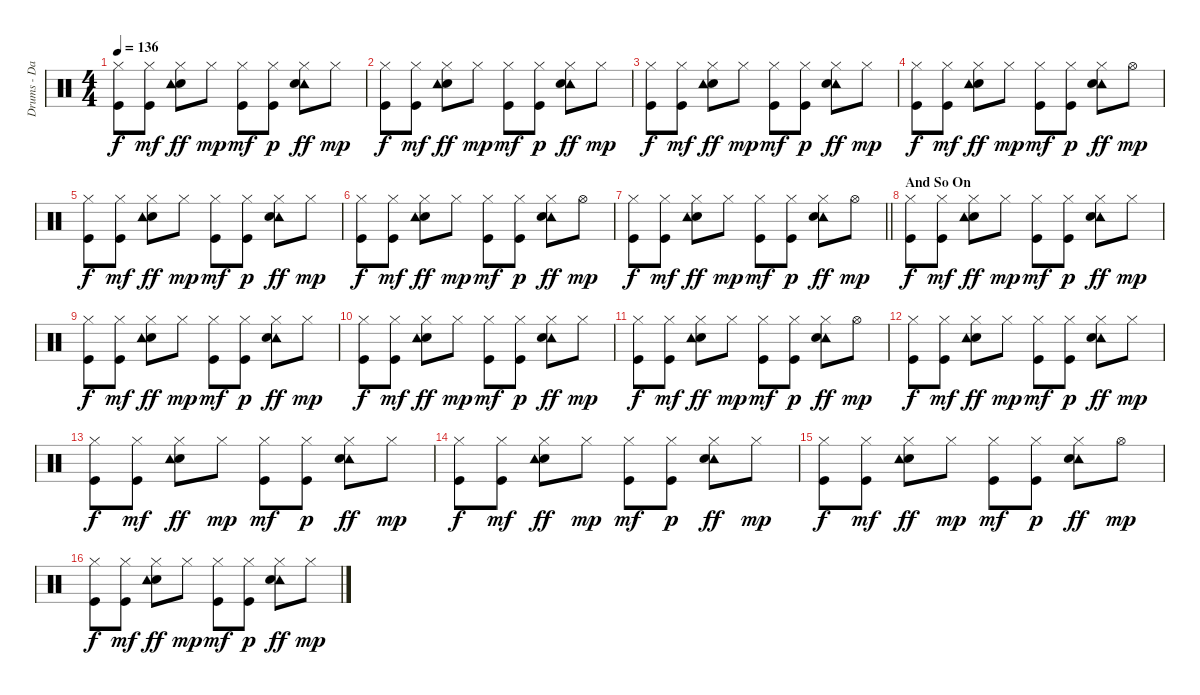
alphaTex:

\track ("Drums - Danny Smythe" "Drums - Da") {instrument percussion}
\staff {score}
\articulation defaults
\ts (4 4)
\tempo 136
\clef neutral
\ks c
("Hi-Hat (closed)" "Kick (hit)").8{dy f} ("Hi-Hat (closed)" "Kick (hit)").8{dy mf} ("Hi-Hat (closed)" "Electric Snare (hit)" "Tambourine (hit)").8{dy ff} "Hi-Hat (closed)".8{dy mp} ("Hi-Hat (closed)" "Kick (hit)").8{dy mf} ("Hi-Hat (closed)" "Kick (hit)").8{dy p} ("Tambourine (hit)" "Hi-Hat (closed)" "Electric Snare (hit)").8{dy ff} "Hi-Hat (closed)".8{dy mp} |
("Hi-Hat (closed)" "Kick (hit)").8{dy f} ("Hi-Hat (closed)" "Kick (hit)").8{dy mf} ("Hi-Hat (closed)" "Electric Snare (hit)" "Tambourine (hit)").8{dy ff} "Hi-Hat (closed)".8{dy mp} ("Hi-Hat (closed)" "Kick (hit)").8{dy mf} ("Hi-Hat (closed)" "Kick (hit)").8{dy p} ("Tambourine (hit)" "Hi-Hat (closed)" "Electric Snare (hit)").8{dy ff} "Hi-Hat (closed)".8{dy mp} |
("Hi-Hat (closed)" "Kick (hit)").8{dy f} ("Hi-Hat (closed)" "Kick (hit)").8{dy mf} ("Hi-Hat (closed)" "Electric Snare (hit)" "Tambourine (hit)").8{dy ff} "Hi-Hat (closed)".8{dy mp} ("Hi-Hat (closed)" "Kick (hit)").8{dy mf} ("Hi-Hat (closed)" "Kick (hit)").8{dy p} ("Tambourine (hit)" "Hi-Hat (closed)" "Electric Snare (hit)").8{dy ff} "Hi-Hat (closed)".8{dy mp} |
("Hi-Hat (closed)" "Kick (hit)").8{dy f} ("Hi-Hat (closed)" "Kick (hit)").8{dy mf} ("Hi-Hat (closed)" "Electric Snare (hit)" "Tambourine (hit)").8{dy ff} "Hi-Hat (closed)".8{dy mp} ("Hi-Hat (closed)" "Kick (hit)").8{dy mf} ("Hi-Hat (closed)" "Kick (hit)").8{dy p} ("Tambourine (hit)" "Hi-Hat (closed)" "Electric Snare (hit)").8{dy ff} "Hi-Hat (open)".8{dy mp} |
("Hi-Hat (closed)" "Kick (hit)").8{dy f} ("Hi-Hat (closed)" "Kick (hit)").8{dy mf} ("Hi-Hat (closed)" "Electric Snare (hit)" "Tambourine (hit)").8{dy ff} "Hi-Hat (closed)".8{dy mp} ("Hi-Hat (closed)" "Kick (hit)").8{dy mf} ("Hi-Hat (closed)" "Kick (hit)").8{dy p} ("Tambourine (hit)" "Hi-Hat (closed)" "Electric Snare (hit)").8{dy ff} "Hi-Hat (closed)".8{dy mp} |
("Hi-Hat (closed)" "Kick (hit)").8{dy f} ("Hi-Hat (closed)" "Kick (hit)").8{dy mf} ("Hi-Hat (closed)" "Electric Snare (hit)" "Tambourine (hit)").8{dy ff} "Hi-Hat (closed)".8{dy mp} ("Hi-Hat (closed)" "Kick (hit)").8{dy mf} ("Hi-Hat (closed)" "Kick (hit)").8{dy p} ("Tambourine (hit)" "Hi-Hat (closed)" "Electric Snare (hit)").8{dy ff} "Hi-Hat (open)".8{dy mp} |
\barLineRight lightlight
("Hi-Hat (closed)" "Kick (hit)").8{dy f} ("Hi-Hat (closed)" "Kick (hit)").8{dy mf} ("Hi-Hat (closed)" "Electric Snare (hit)" "Tambourine (hit)").8{dy ff} "Hi-Hat (closed)".8{dy mp} ("Hi-Hat (closed)" "Kick (hit)").8{dy mf} ("Hi-Hat (closed)" "Kick (hit)").8{dy p} ("Tambourine (hit)" "Hi-Hat (closed)" "Electric Snare (hit)").8{dy ff} "Hi-Hat (open)".8{dy mp} |
\section ("" "And So On")
("Hi-Hat (closed)" "Kick (hit)").8{dy f} ("Hi-Hat (closed)" "Kick (hit)").8{dy mf} ("Hi-Hat (closed)" "Electric Snare (hit)" "Tambourine (hit)").8{dy ff} "Hi-Hat (closed)".8{dy mp} ("Hi-Hat (closed)" "Kick (hit)").8{dy mf} ("Hi-Hat (closed)" "Kick (hit)").8{dy p} ("Tambourine (hit)" "Hi-Hat (closed)" "Electric Snare (hit)").8{dy ff} "Hi-Hat (closed)".8{dy mp} |
("Hi-Hat (closed)" "Kick (hit)").8{dy f} ("Hi-Hat (closed)" "Kick (hit)").8{dy mf} ("Hi-Hat (closed)" "Electric Snare (hit)" "Tambourine (hit)").8{dy ff} "Hi-Hat (closed)".8{dy mp} ("Hi-Hat (closed)" "Kick (hit)").8{dy mf} ("Hi-Hat (closed)" "Kick (hit)").8{dy p} ("Tambourine (hit)" "Hi-Hat (closed)" "Electric Snare (hit)").8{dy ff} "Hi-Hat (closed)".8{dy mp} |
("Hi-Hat (closed)" "Kick (hit)").8{dy f} ("Hi-Hat (closed)" "Kick (hit)").8{dy mf} ("Hi-Hat (closed)" "Electric Snare (hit)" "Tambourine (hit)").8{dy ff} "Hi-Hat (closed)".8{dy mp} ("Hi-Hat (closed)" "Kick (hit)").8{dy mf} ("Hi-Hat (closed)" "Kick (hit)").8{dy p} ("Tambourine (hit)" "Hi-Hat (closed)" "Electric Snare (hit)").8{dy ff} "Hi-Hat (closed)".8{dy mp} |
("Hi-Hat (closed)" "Kick (hit)").8{dy f} ("Hi-Hat (closed)" "Kick (hit)").8{dy mf} ("Hi-Hat (closed)" "Electric Snare (hit)" "Tambourine (hit)").8{dy ff} "Hi-Hat (closed)".8{dy mp} ("Hi-Hat (closed)" "Kick (hit)").8{dy mf} ("Hi-Hat (closed)" "Kick (hit)").8{dy p} ("Tambourine (hit)" "Hi-Hat (closed)" "Electric Snare (hit)").8{dy ff} "Hi-Hat (open)".8{dy mp} |
("Hi-Hat (closed)" "Kick (hit)").8{dy f} ("Hi-Hat (closed)" "Kick (hit)").8{dy mf} ("Hi-Hat (closed)" "Electric Snare (hit)" "Tambourine (hit)").8{dy ff} "Hi-Hat (closed)".8{dy mp} ("Hi-Hat (closed)" "Kick (hit)").8{dy mf} ("Hi-Hat (closed)" "Kick (hit)").8{dy p} ("Tambourine (hit)" "Hi-Hat (closed)" "Electric Snare (hit)").8{dy ff} "Hi-Hat (closed)".8{dy mp} |
("Hi-Hat (closed)" "Kick (hit)").8{dy f} ("Hi-Hat (closed)" "Kick (hit)").8{dy mf} ("Hi-Hat (closed)" "Electric Snare (hit)" "Tambourine (hit)").8{dy ff} "Hi-Hat (closed)".8{dy mp} ("Hi-Hat (closed)" "Kick (hit)").8{dy mf} ("Hi-Hat (closed)" "Kick (hit)").8{dy p} ("Tambourine (hit)" "Hi-Hat (closed)" "Electric Snare (hit)").8{dy ff} "Hi-Hat (closed)".8{dy mp} |
("Hi-Hat (closed)" "Kick (hit)").8{dy f} ("Hi-Hat (closed)" "Kick (hit)").8{dy mf} ("Hi-Hat (closed)" "Electric Snare (hit)" "Tambourine (hit)").8{dy ff} "Hi-Hat (closed)".8{dy mp} ("Hi-Hat (closed)" "Kick (hit)").8{dy mf} ("Hi-Hat (closed)" "Kick (hit)").8{dy p} ("Tambourine (hit)" "Hi-Hat (closed)" "Electric Snare (hit)").8{dy ff} "Hi-Hat (closed)".8{dy mp} |
("Hi-Hat (closed)" "Kick (hit)").8{dy f} ("Hi-Hat (closed)" "Kick (hit)").8{dy mf} ("Hi-Hat (closed)" "Electric Snare (hit)" "Tambourine (hit)").8{dy ff} "Hi-Hat (closed)".8{dy mp} ("Hi-Hat (closed)" "Kick (hit)").8{dy mf} ("Hi-Hat (closed)" "Kick (hit)").8{dy p} ("Tambourine (hit)" "Hi-Hat (closed)" "Electric Snare (hit)").8{dy ff} "Hi-Hat (open)".8{dy mp} |
("Hi-Hat (closed)" "Kick (hit)").8{dy f} ("Hi-Hat (closed)" "Kick (hit)").8{dy mf} ("Hi-Hat (closed)" "Electric Snare (hit)" "Tambourine (hit)").8{dy ff} "Hi-Hat (closed)".8{dy mp} ("Hi-Hat (closed)" "Kick (hit)").8{dy mf} ("Hi-Hat (closed)" "Kick (hit)").8{dy p} ("Tambourine (hit)" "Hi-Hat (closed)" "Electric Snare (hit)").8{dy ff} "Hi-Hat (closed)".8{dy mp}
